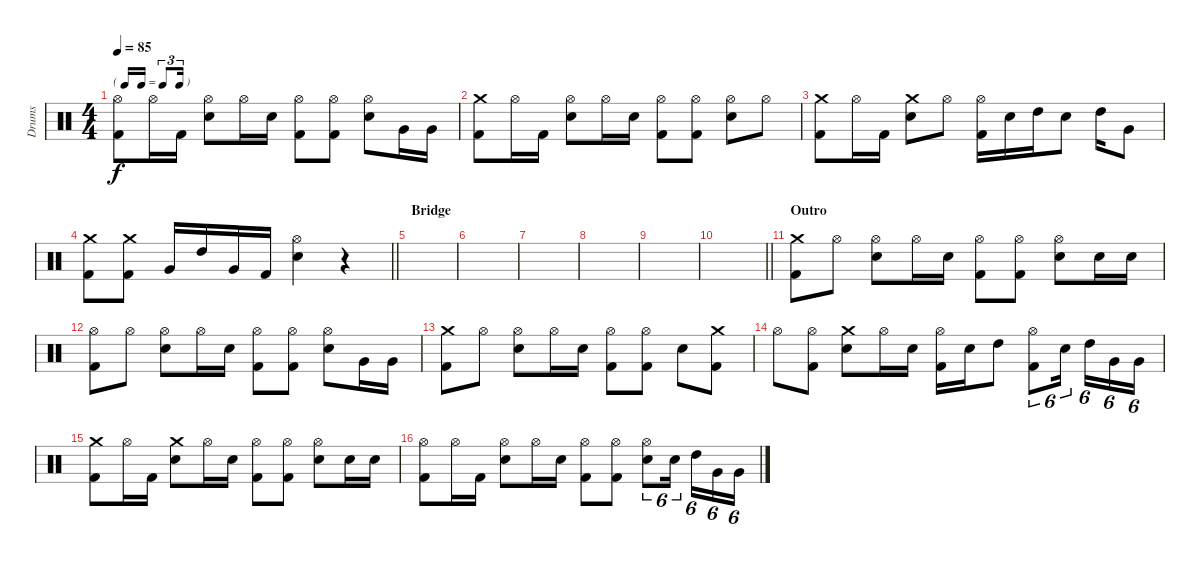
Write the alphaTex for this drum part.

\track ("Drums" "Drums") {instrument percussion}
\staff {score}
\articulation defaults
\ts (4 4)
\tf triplet16th
\tempo 85
\clef neutral
\ks c
("Hi-Hat (open)" "Kick (hit) 2").8{dy f} "Hi-Hat (open)".16 "Kick (hit) 2".16 ("Hi-Hat (open)" "Snare (hit) 2").8 "Hi-Hat (open)".16 "Snare (hit) 2".16 ("Hi-Hat (open)" "Kick (hit) 2").8 ("Hi-Hat (open)" "Kick (hit) 2").8 ("Hi-Hat (open)" "Snare (hit) 2").8 "Very Low Tom (hit)".16 "Very Low Tom (hit)".16 |
("Crash medium (hit)" "Kick (hit) 2").8 "Hi-Hat (open)".16 "Kick (hit) 2".16 ("Hi-Hat (open)" "Snare (hit) 2").8 "Hi-Hat (open)".16 "Snare (hit) 2".16 ("Hi-Hat (open)" "Kick (hit) 2").8 ("Hi-Hat (open)" "Kick (hit) 2").8 ("Hi-Hat (open)" "Snare (hit) 2").8 "Hi-Hat (open)".8 |
("Crash medium (hit)" "Kick (hit) 2").8 "Hi-Hat (open)".16 "Kick (hit) 2".16 ("Crash medium (hit)" "Snare (hit) 2").8 "Hi-Hat (open)".8 ("Hi-Hat (open)" "Kick (hit) 2").16 "Snare (hit) 2".16 "High Tom (hit)".16 "Snare (hit) 2".8 "High Tom (hit)".16 "Very Low Tom (hit)".8 |
\barLineRight lightlight
("Crash medium (hit)" "Kick (hit) 2").8 ("Crash medium (hit)" "Kick (hit) 2").8 "Very Low Tom (hit)".16 "High Tom (hit)".16 "Very Low Tom (hit)".16 "Kick (hit) 2".16 ("Hi-Hat (open)" "Snare (hit) 2").4 r.4 |
\section ("" "Bridge")
|
|
|
|
|
\barLineRight lightlight
|
\section ("" "Outro")
("Crash medium (hit)" "Kick (hit) 2").8 "Hi-Hat (open)".8 ("Hi-Hat (open)" "Snare (hit) 2").8 "Hi-Hat (open)".16 "Snare (hit) 2".16 ("Hi-Hat (open)" "Kick (hit) 2").8 ("Hi-Hat (open)" "Kick (hit) 2").8 ("Hi-Hat (open)" "Snare (hit) 2").8 "Snare (hit) 2".16 "Snare (hit) 2".16 |
("Hi-Hat (open)" "Kick (hit) 2").8 "Hi-Hat (open)".8 ("Hi-Hat (open)" "Snare (hit) 2").8 "Hi-Hat (open)".16 "Snare (hit) 2".16 ("Hi-Hat (open)" "Kick (hit) 2").8 ("Hi-Hat (open)" "Kick (hit) 2").8 ("Hi-Hat (open)" "Snare (hit) 2").8 "Very Low Tom (hit)".16 "Very Low Tom (hit)".16 |
("Crash medium (hit)" "Kick (hit) 2").8 "Hi-Hat (open)".8 ("Hi-Hat (open)" "Snare (hit) 2").8 "Hi-Hat (open)".16 "Snare (hit) 2".16 ("Hi-Hat (open)" "Kick (hit) 2").8 ("Hi-Hat (open)" "Kick (hit) 2").8 "Snare (hit) 2".8 ("Crash medium (hit)" "Kick (hit) 2").8 |
"Hi-Hat (open)".8 ("Hi-Hat (open)" "Kick (hit) 2").8 ("Crash medium (hit)" "Snare (hit) 2").8 "Hi-Hat (open)".16 "Snare (hit) 2".16 ("Hi-Hat (open)" "Kick (hit) 2").16 "Snare (hit) 2".16 "High Tom (hit)".8 ("Hi-Hat (open)" "Kick (hit) 2").8{tu (6 4)} "Snare (hit) 2".16{tu (6 4) beam splitsecondary} "High Tom (hit)".16{tu (6 4)} "Very Low Tom (hit)".16{tu (6 4)} "Very Low Tom (hit)".16{tu (6 4)} |
("Crash medium (hit)" "Kick (hit) 2").8 "Hi-Hat (open)".16 "Kick (hit) 2".16 ("Crash medium (hit)" "Snare (hit) 2").8 "Hi-Hat (open)".16 "Snare (hit) 2".16 ("Hi-Hat (open)" "Kick (hit) 2").8 ("Hi-Hat (open)" "Kick (hit) 2").8 ("Hi-Hat (open)" "Snare (hit) 2").8 "Snare (hit) 2".16 "Snare (hit) 2".16 |
("Hi-Hat (open)" "Kick (hit) 2").8 "Hi-Hat (open)".16 "Kick (hit) 2".16 ("Hi-Hat (open)" "Snare (hit) 2").8 "Hi-Hat (open)".16 "Snare (hit) 2".16 ("Hi-Hat (open)" "Kick (hit) 2").8 ("Hi-Hat (open)" "Kick (hit) 2").8 ("Hi-Hat (open)" "Snare (hit) 2").8{tu (6 4)} "Snare (hit) 2".16{tu (6 4) beam splitsecondary} "High Tom (hit)".16{tu (6 4)} "Very Low Tom (hit)".16{tu (6 4)} "Very Low Tom (hit)".16{tu (6 4)}
